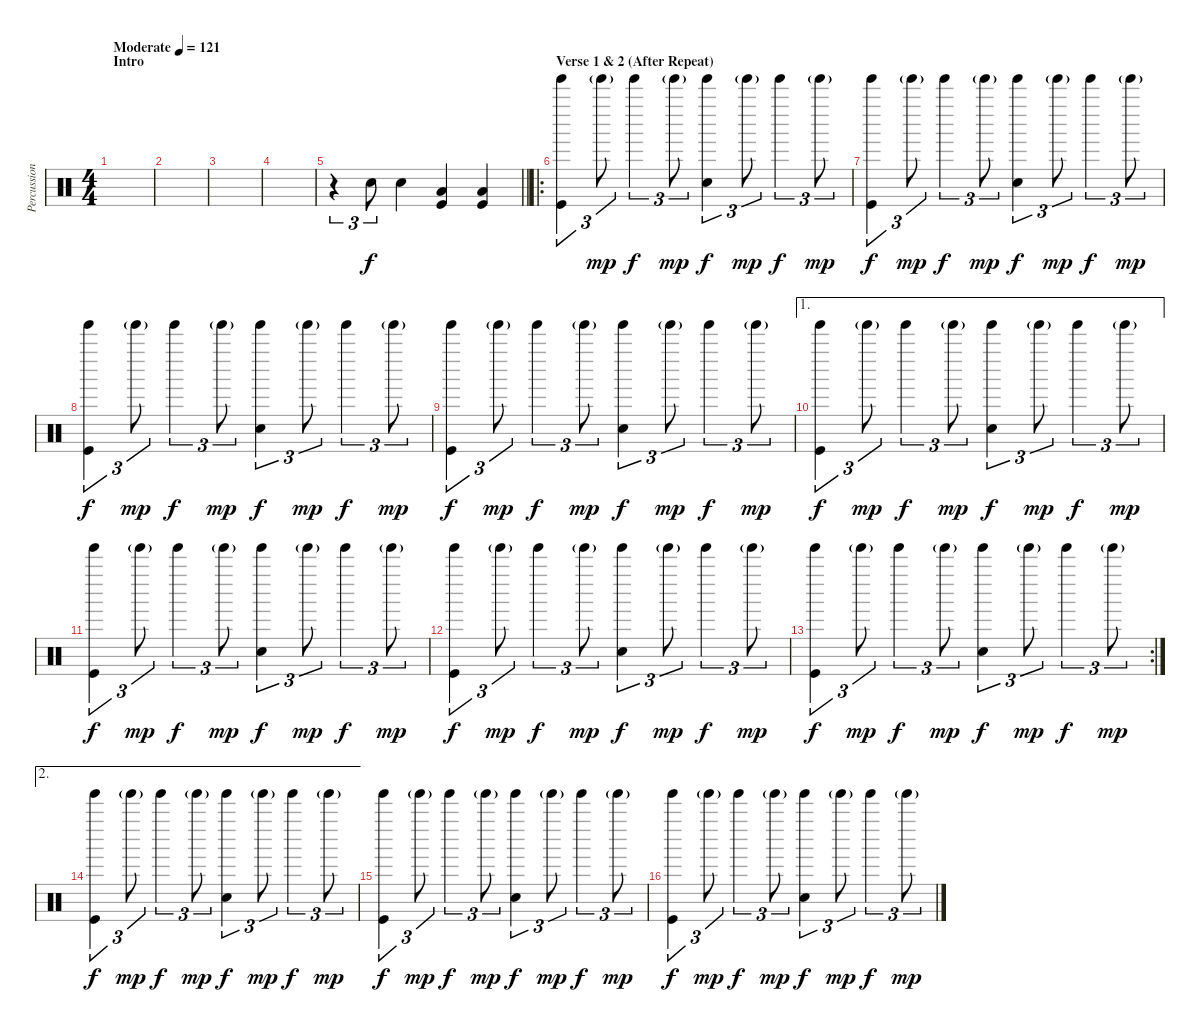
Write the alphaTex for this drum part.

\track ("Percussion" "Percussion") {instrument percussion}
\staff
\articulation defaults
\ts (4 4)
\section ("" "Intro")
\tempo (121 "Moderate")
\clef neutral
\ks c
|
|
|
|
\barLineRight lightlight
r.4{tu (3 2)} "Electric Snare (hit)".8{tu (3 2)} "Electric Snare (hit)".4 ("Low Tom (hit)" "Kick (hit)").4 ("Low Floor Tom (hit)" "Kick (hit)").4 |
\ro
\section ("" "Verse 1 & 2 (After Repeat)")
("Tinkle Bell (hit)" "Kick (hit)").4{tu (3 2)} "Tinkle Bell (hit)"{g}.8{tu (3 2) dy mp} "Tinkle Bell (hit)".4{tu (3 2) dy f} "Tinkle Bell (hit)"{g}.8{tu (3 2) dy mp} ("Electric Snare (hit)" "Tinkle Bell (hit)").4{tu (3 2) dy f} "Tinkle Bell (hit)"{g}.8{tu (3 2) dy mp} "Tinkle Bell (hit)".4{tu (3 2) dy f} "Tinkle Bell (hit)"{g}.8{tu (3 2) dy mp} |
("Tinkle Bell (hit)" "Kick (hit)").4{tu (3 2) dy f} "Tinkle Bell (hit)"{g}.8{tu (3 2) dy mp} "Tinkle Bell (hit)".4{tu (3 2) dy f} "Tinkle Bell (hit)"{g}.8{tu (3 2) dy mp} ("Electric Snare (hit)" "Tinkle Bell (hit)").4{tu (3 2) dy f} "Tinkle Bell (hit)"{g}.8{tu (3 2) dy mp} "Tinkle Bell (hit)".4{tu (3 2) dy f} "Tinkle Bell (hit)"{g}.8{tu (3 2) dy mp} |
("Tinkle Bell (hit)" "Kick (hit)").4{tu (3 2) dy f} "Tinkle Bell (hit)"{g}.8{tu (3 2) dy mp} "Tinkle Bell (hit)".4{tu (3 2) dy f} "Tinkle Bell (hit)"{g}.8{tu (3 2) dy mp} ("Electric Snare (hit)" "Tinkle Bell (hit)").4{tu (3 2) dy f} "Tinkle Bell (hit)"{g}.8{tu (3 2) dy mp} "Tinkle Bell (hit)".4{tu (3 2) dy f} "Tinkle Bell (hit)"{g}.8{tu (3 2) dy mp} |
("Tinkle Bell (hit)" "Kick (hit)").4{tu (3 2) dy f} "Tinkle Bell (hit)"{g}.8{tu (3 2) dy mp} "Tinkle Bell (hit)".4{tu (3 2) dy f} "Tinkle Bell (hit)"{g}.8{tu (3 2) dy mp} ("Electric Snare (hit)" "Tinkle Bell (hit)").4{tu (3 2) dy f} "Tinkle Bell (hit)"{g}.8{tu (3 2) dy mp} "Tinkle Bell (hit)".4{tu (3 2) dy f} "Tinkle Bell (hit)"{g}.8{tu (3 2) dy mp} |
\ae 1
("Tinkle Bell (hit)" "Kick (hit)").4{tu (3 2) dy f} "Tinkle Bell (hit)"{g}.8{tu (3 2) dy mp} "Tinkle Bell (hit)".4{tu (3 2) dy f} "Tinkle Bell (hit)"{g}.8{tu (3 2) dy mp} ("Electric Snare (hit)" "Tinkle Bell (hit)").4{tu (3 2) dy f} "Tinkle Bell (hit)"{g}.8{tu (3 2) dy mp} "Tinkle Bell (hit)".4{tu (3 2) dy f} "Tinkle Bell (hit)"{g}.8{tu (3 2) dy mp} |
("Tinkle Bell (hit)" "Kick (hit)").4{tu (3 2) dy f} "Tinkle Bell (hit)"{g}.8{tu (3 2) dy mp} "Tinkle Bell (hit)".4{tu (3 2) dy f} "Tinkle Bell (hit)"{g}.8{tu (3 2) dy mp} ("Electric Snare (hit)" "Tinkle Bell (hit)").4{tu (3 2) dy f} "Tinkle Bell (hit)"{g}.8{tu (3 2) dy mp} "Tinkle Bell (hit)".4{tu (3 2) dy f} "Tinkle Bell (hit)"{g}.8{tu (3 2) dy mp} |
("Tinkle Bell (hit)" "Kick (hit)").4{tu (3 2) dy f} "Tinkle Bell (hit)"{g}.8{tu (3 2) dy mp} "Tinkle Bell (hit)".4{tu (3 2) dy f} "Tinkle Bell (hit)"{g}.8{tu (3 2) dy mp} ("Electric Snare (hit)" "Tinkle Bell (hit)").4{tu (3 2) dy f} "Tinkle Bell (hit)"{g}.8{tu (3 2) dy mp} "Tinkle Bell (hit)".4{tu (3 2) dy f} "Tinkle Bell (hit)"{g}.8{tu (3 2) dy mp} |
\rc 2
("Tinkle Bell (hit)" "Kick (hit)").4{tu (3 2) dy f} "Tinkle Bell (hit)"{g}.8{tu (3 2) dy mp} "Tinkle Bell (hit)".4{tu (3 2) dy f} "Tinkle Bell (hit)"{g}.8{tu (3 2) dy mp} ("Electric Snare (hit)" "Tinkle Bell (hit)").4{tu (3 2) dy f} "Tinkle Bell (hit)"{g}.8{tu (3 2) dy mp} "Tinkle Bell (hit)".4{tu (3 2) dy f} "Tinkle Bell (hit)"{g}.8{tu (3 2) dy mp} |
\ae 2
("Tinkle Bell (hit)" "Kick (hit)").4{tu (3 2) dy f} "Tinkle Bell (hit)"{g}.8{tu (3 2) dy mp} "Tinkle Bell (hit)".4{tu (3 2) dy f} "Tinkle Bell (hit)"{g}.8{tu (3 2) dy mp} ("Electric Snare (hit)" "Tinkle Bell (hit)").4{tu (3 2) dy f} "Tinkle Bell (hit)"{g}.8{tu (3 2) dy mp} "Tinkle Bell (hit)".4{tu (3 2) dy f} "Tinkle Bell (hit)"{g}.8{tu (3 2) dy mp} |
("Tinkle Bell (hit)" "Kick (hit)").4{tu (3 2) dy f} "Tinkle Bell (hit)"{g}.8{tu (3 2) dy mp} "Tinkle Bell (hit)".4{tu (3 2) dy f} "Tinkle Bell (hit)"{g}.8{tu (3 2) dy mp} ("Electric Snare (hit)" "Tinkle Bell (hit)").4{tu (3 2) dy f} "Tinkle Bell (hit)"{g}.8{tu (3 2) dy mp} "Tinkle Bell (hit)".4{tu (3 2) dy f} "Tinkle Bell (hit)"{g}.8{tu (3 2) dy mp} |
("Tinkle Bell (hit)" "Kick (hit)").4{tu (3 2) dy f} "Tinkle Bell (hit)"{g}.8{tu (3 2) dy mp} "Tinkle Bell (hit)".4{tu (3 2) dy f} "Tinkle Bell (hit)"{g}.8{tu (3 2) dy mp} ("Electric Snare (hit)" "Tinkle Bell (hit)").4{tu (3 2) dy f} "Tinkle Bell (hit)"{g}.8{tu (3 2) dy mp} "Tinkle Bell (hit)".4{tu (3 2) dy f} "Tinkle Bell (hit)"{g}.8{tu (3 2) dy mp}
